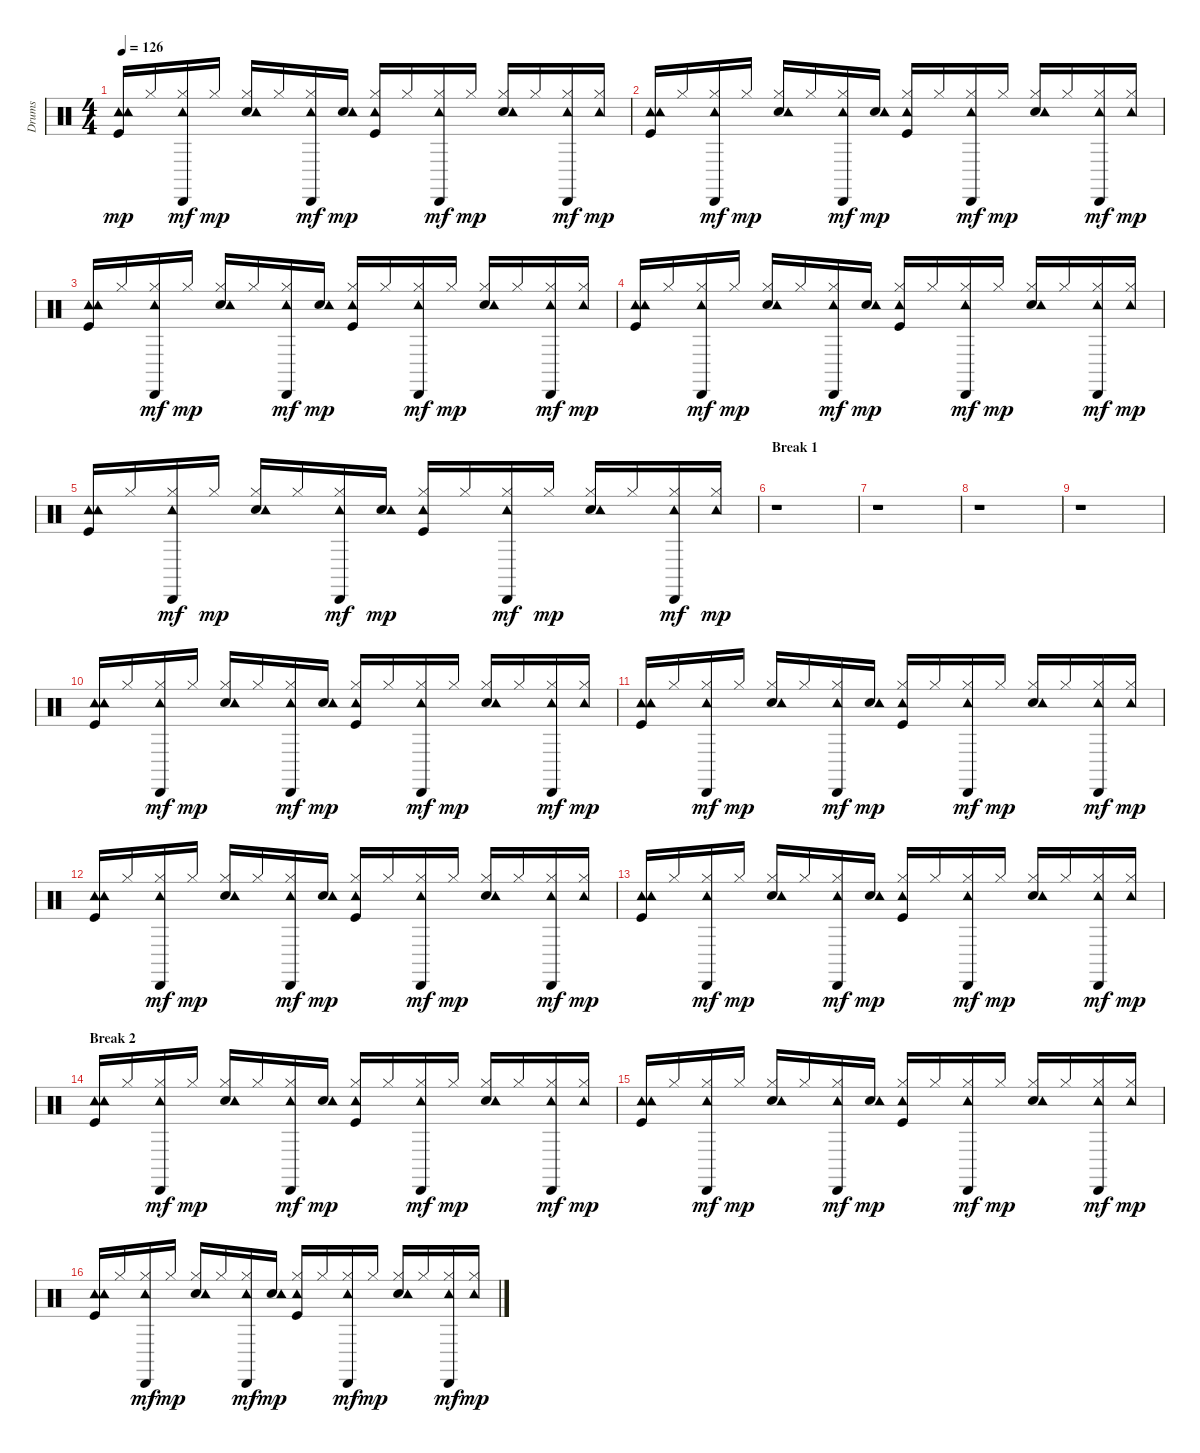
\track ("Drums" "Drums") {instrument percussion}
\staff {score}
\articulation defaults
\ts (4 4)
\tempo 126
\clef neutral
\ks c
("Kick (hit)" "Tambourine (hit)" "Tambourine (hit)").16{dy mp} "Hi-Hat (closed)".16 ("Hi-Hat (closed)" "Tambourine (hit)" "Cabasa (hit)").16{dy mf} "Hi-Hat (closed)".16{dy mp} ("Snare (hit) 2" "Hi-Hat (closed)" "Tambourine (hit)").16 "Hi-Hat (closed)".16 ("Hi-Hat (closed)" "Tambourine (hit)" "Cabasa (hit)").16{dy mf} ("Snare (hit) 2" "Tambourine (hit)").16{dy mp} ("Kick (hit)" "Hi-Hat (closed)" "Tambourine (hit)").16 "Hi-Hat (closed)".16 ("Hi-Hat (closed)" "Tambourine (hit)" "Cabasa (hit)").16{dy mf} "Hi-Hat (closed)".16{dy mp} ("Snare (hit) 2" "Hi-Hat (closed)" "Tambourine (hit)").16 "Hi-Hat (closed)".16 ("Hi-Hat (closed)" "Tambourine (hit)" "Cabasa (hit)").16{dy mf} ("Hi-Hat (closed)" "Tambourine (hit)").16{dy mp} |
("Kick (hit)" "Tambourine (hit)" "Tambourine (hit)").16 "Hi-Hat (closed)".16 ("Hi-Hat (closed)" "Tambourine (hit)" "Cabasa (hit)").16{dy mf} "Hi-Hat (closed)".16{dy mp} ("Snare (hit) 2" "Hi-Hat (closed)" "Tambourine (hit)").16 "Hi-Hat (closed)".16 ("Hi-Hat (closed)" "Tambourine (hit)" "Cabasa (hit)").16{dy mf} ("Snare (hit) 2" "Tambourine (hit)").16{dy mp} ("Kick (hit)" "Hi-Hat (closed)" "Tambourine (hit)").16 "Hi-Hat (closed)".16 ("Hi-Hat (closed)" "Tambourine (hit)" "Cabasa (hit)").16{dy mf} "Hi-Hat (closed)".16{dy mp} ("Snare (hit) 2" "Hi-Hat (closed)" "Tambourine (hit)").16 "Hi-Hat (closed)".16 ("Hi-Hat (closed)" "Tambourine (hit)" "Cabasa (hit)").16{dy mf} ("Hi-Hat (closed)" "Tambourine (hit)").16{dy mp} |
("Kick (hit)" "Tambourine (hit)" "Tambourine (hit)").16 "Hi-Hat (closed)".16 ("Hi-Hat (closed)" "Tambourine (hit)" "Cabasa (hit)").16{dy mf} "Hi-Hat (closed)".16{dy mp} ("Snare (hit) 2" "Hi-Hat (closed)" "Tambourine (hit)").16 "Hi-Hat (closed)".16 ("Hi-Hat (closed)" "Tambourine (hit)" "Cabasa (hit)").16{dy mf} ("Snare (hit) 2" "Tambourine (hit)").16{dy mp} ("Kick (hit)" "Hi-Hat (closed)" "Tambourine (hit)").16 "Hi-Hat (closed)".16 ("Hi-Hat (closed)" "Tambourine (hit)" "Cabasa (hit)").16{dy mf} "Hi-Hat (closed)".16{dy mp} ("Snare (hit) 2" "Hi-Hat (closed)" "Tambourine (hit)").16 "Hi-Hat (closed)".16 ("Hi-Hat (closed)" "Tambourine (hit)" "Cabasa (hit)").16{dy mf} ("Hi-Hat (closed)" "Tambourine (hit)").16{dy mp} |
("Kick (hit)" "Tambourine (hit)" "Tambourine (hit)").16 "Hi-Hat (closed)".16 ("Hi-Hat (closed)" "Tambourine (hit)" "Cabasa (hit)").16{dy mf} "Hi-Hat (closed)".16{dy mp} ("Snare (hit) 2" "Hi-Hat (closed)" "Tambourine (hit)").16 "Hi-Hat (closed)".16 ("Hi-Hat (closed)" "Tambourine (hit)" "Cabasa (hit)").16{dy mf} ("Snare (hit) 2" "Tambourine (hit)").16{dy mp} ("Kick (hit)" "Hi-Hat (closed)" "Tambourine (hit)").16 "Hi-Hat (closed)".16 ("Hi-Hat (closed)" "Tambourine (hit)" "Cabasa (hit)").16{dy mf} "Hi-Hat (closed)".16{dy mp} ("Snare (hit) 2" "Hi-Hat (closed)" "Tambourine (hit)").16 "Hi-Hat (closed)".16 ("Hi-Hat (closed)" "Tambourine (hit)" "Cabasa (hit)").16{dy mf} ("Hi-Hat (closed)" "Tambourine (hit)").16{dy mp} |
("Kick (hit)" "Tambourine (hit)" "Tambourine (hit)").16 "Hi-Hat (closed)".16 ("Hi-Hat (closed)" "Tambourine (hit)" "Cabasa (hit)").16{dy mf} "Hi-Hat (closed)".16{dy mp} ("Snare (hit) 2" "Hi-Hat (closed)" "Tambourine (hit)").16 "Hi-Hat (closed)".16 ("Hi-Hat (closed)" "Tambourine (hit)" "Cabasa (hit)").16{dy mf} ("Snare (hit) 2" "Tambourine (hit)").16{dy mp} ("Kick (hit)" "Hi-Hat (closed)" "Tambourine (hit)").16 "Hi-Hat (closed)".16 ("Hi-Hat (closed)" "Tambourine (hit)" "Cabasa (hit)").16{dy mf} "Hi-Hat (closed)".16{dy mp} ("Snare (hit) 2" "Hi-Hat (closed)" "Tambourine (hit)").16 "Hi-Hat (closed)".16 ("Hi-Hat (closed)" "Tambourine (hit)" "Cabasa (hit)").16{dy mf} ("Hi-Hat (closed)" "Tambourine (hit)").16{dy mp} |
\section ("" "Break 1")
r.1 |
r.1 |
r.1 |
r.1 |
("Kick (hit)" "Tambourine (hit)" "Tambourine (hit)").16 "Hi-Hat (closed)".16 ("Hi-Hat (closed)" "Tambourine (hit)" "Cabasa (hit)").16{dy mf} "Hi-Hat (closed)".16{dy mp} ("Snare (hit) 2" "Hi-Hat (closed)" "Tambourine (hit)").16 "Hi-Hat (closed)".16 ("Hi-Hat (closed)" "Tambourine (hit)" "Cabasa (hit)").16{dy mf} ("Snare (hit) 2" "Tambourine (hit)").16{dy mp} ("Kick (hit)" "Hi-Hat (closed)" "Tambourine (hit)").16 "Hi-Hat (closed)".16 ("Hi-Hat (closed)" "Tambourine (hit)" "Cabasa (hit)").16{dy mf} "Hi-Hat (closed)".16{dy mp} ("Snare (hit) 2" "Hi-Hat (closed)" "Tambourine (hit)").16 "Hi-Hat (closed)".16 ("Hi-Hat (closed)" "Tambourine (hit)" "Cabasa (hit)").16{dy mf} ("Hi-Hat (closed)" "Tambourine (hit)").16{dy mp} |
("Kick (hit)" "Tambourine (hit)" "Tambourine (hit)").16 "Hi-Hat (closed)".16 ("Hi-Hat (closed)" "Tambourine (hit)" "Cabasa (hit)").16{dy mf} "Hi-Hat (closed)".16{dy mp} ("Snare (hit) 2" "Hi-Hat (closed)" "Tambourine (hit)").16 "Hi-Hat (closed)".16 ("Hi-Hat (closed)" "Tambourine (hit)" "Cabasa (hit)").16{dy mf} ("Snare (hit) 2" "Tambourine (hit)").16{dy mp} ("Kick (hit)" "Hi-Hat (closed)" "Tambourine (hit)").16 "Hi-Hat (closed)".16 ("Hi-Hat (closed)" "Tambourine (hit)" "Cabasa (hit)").16{dy mf} "Hi-Hat (closed)".16{dy mp} ("Snare (hit) 2" "Hi-Hat (closed)" "Tambourine (hit)").16 "Hi-Hat (closed)".16 ("Hi-Hat (closed)" "Tambourine (hit)" "Cabasa (hit)").16{dy mf} ("Hi-Hat (closed)" "Tambourine (hit)").16{dy mp} |
("Kick (hit)" "Tambourine (hit)" "Tambourine (hit)").16 "Hi-Hat (closed)".16 ("Hi-Hat (closed)" "Tambourine (hit)" "Cabasa (hit)").16{dy mf} "Hi-Hat (closed)".16{dy mp} ("Snare (hit) 2" "Hi-Hat (closed)" "Tambourine (hit)").16 "Hi-Hat (closed)".16 ("Hi-Hat (closed)" "Tambourine (hit)" "Cabasa (hit)").16{dy mf} ("Snare (hit) 2" "Tambourine (hit)").16{dy mp} ("Kick (hit)" "Hi-Hat (closed)" "Tambourine (hit)").16 "Hi-Hat (closed)".16 ("Hi-Hat (closed)" "Tambourine (hit)" "Cabasa (hit)").16{dy mf} "Hi-Hat (closed)".16{dy mp} ("Snare (hit) 2" "Hi-Hat (closed)" "Tambourine (hit)").16 "Hi-Hat (closed)".16 ("Hi-Hat (closed)" "Tambourine (hit)" "Cabasa (hit)").16{dy mf} ("Hi-Hat (closed)" "Tambourine (hit)").16{dy mp} |
("Kick (hit)" "Tambourine (hit)" "Tambourine (hit)").16 "Hi-Hat (closed)".16 ("Hi-Hat (closed)" "Tambourine (hit)" "Cabasa (hit)").16{dy mf} "Hi-Hat (closed)".16{dy mp} ("Snare (hit) 2" "Hi-Hat (closed)" "Tambourine (hit)").16 "Hi-Hat (closed)".16 ("Hi-Hat (closed)" "Tambourine (hit)" "Cabasa (hit)").16{dy mf} ("Snare (hit) 2" "Tambourine (hit)").16{dy mp} ("Kick (hit)" "Hi-Hat (closed)" "Tambourine (hit)").16 "Hi-Hat (closed)".16 ("Hi-Hat (closed)" "Tambourine (hit)" "Cabasa (hit)").16{dy mf} "Hi-Hat (closed)".16{dy mp} ("Snare (hit) 2" "Hi-Hat (closed)" "Tambourine (hit)").16 "Hi-Hat (closed)".16 ("Hi-Hat (closed)" "Tambourine (hit)" "Cabasa (hit)").16{dy mf} ("Hi-Hat (closed)" "Tambourine (hit)").16{dy mp} |
\section ("" "Break 2")
("Kick (hit)" "Tambourine (hit)" "Tambourine (hit)").16 "Hi-Hat (closed)".16 ("Hi-Hat (closed)" "Tambourine (hit)" "Cabasa (hit)").16{dy mf} "Hi-Hat (closed)".16{dy mp} ("Snare (hit) 2" "Hi-Hat (closed)" "Tambourine (hit)").16 "Hi-Hat (closed)".16 ("Hi-Hat (closed)" "Tambourine (hit)" "Cabasa (hit)").16{dy mf} ("Snare (hit) 2" "Tambourine (hit)").16{dy mp} ("Kick (hit)" "Hi-Hat (closed)" "Tambourine (hit)").16 "Hi-Hat (closed)".16 ("Hi-Hat (closed)" "Tambourine (hit)" "Cabasa (hit)").16{dy mf} "Hi-Hat (closed)".16{dy mp} ("Snare (hit) 2" "Hi-Hat (closed)" "Tambourine (hit)").16 "Hi-Hat (closed)".16 ("Hi-Hat (closed)" "Tambourine (hit)" "Cabasa (hit)").16{dy mf} ("Hi-Hat (closed)" "Tambourine (hit)").16{dy mp} |
("Kick (hit)" "Tambourine (hit)" "Tambourine (hit)").16 "Hi-Hat (closed)".16 ("Hi-Hat (closed)" "Tambourine (hit)" "Cabasa (hit)").16{dy mf} "Hi-Hat (closed)".16{dy mp} ("Snare (hit) 2" "Hi-Hat (closed)" "Tambourine (hit)").16 "Hi-Hat (closed)".16 ("Hi-Hat (closed)" "Tambourine (hit)" "Cabasa (hit)").16{dy mf} ("Snare (hit) 2" "Tambourine (hit)").16{dy mp} ("Kick (hit)" "Hi-Hat (closed)" "Tambourine (hit)").16 "Hi-Hat (closed)".16 ("Hi-Hat (closed)" "Tambourine (hit)" "Cabasa (hit)").16{dy mf} "Hi-Hat (closed)".16{dy mp} ("Snare (hit) 2" "Hi-Hat (closed)" "Tambourine (hit)").16 "Hi-Hat (closed)".16 ("Hi-Hat (closed)" "Tambourine (hit)" "Cabasa (hit)").16{dy mf} ("Hi-Hat (closed)" "Tambourine (hit)").16{dy mp} |
("Kick (hit)" "Tambourine (hit)" "Tambourine (hit)").16 "Hi-Hat (closed)".16 ("Hi-Hat (closed)" "Tambourine (hit)" "Cabasa (hit)").16{dy mf} "Hi-Hat (closed)".16{dy mp} ("Snare (hit) 2" "Hi-Hat (closed)" "Tambourine (hit)").16 "Hi-Hat (closed)".16 ("Hi-Hat (closed)" "Tambourine (hit)" "Cabasa (hit)").16{dy mf} ("Snare (hit) 2" "Tambourine (hit)").16{dy mp} ("Kick (hit)" "Hi-Hat (closed)" "Tambourine (hit)").16 "Hi-Hat (closed)".16 ("Hi-Hat (closed)" "Tambourine (hit)" "Cabasa (hit)").16{dy mf} "Hi-Hat (closed)".16{dy mp} ("Snare (hit) 2" "Hi-Hat (closed)" "Tambourine (hit)").16 "Hi-Hat (closed)".16 ("Hi-Hat (closed)" "Tambourine (hit)" "Cabasa (hit)").16{dy mf} ("Hi-Hat (closed)" "Tambourine (hit)").16{dy mp}
